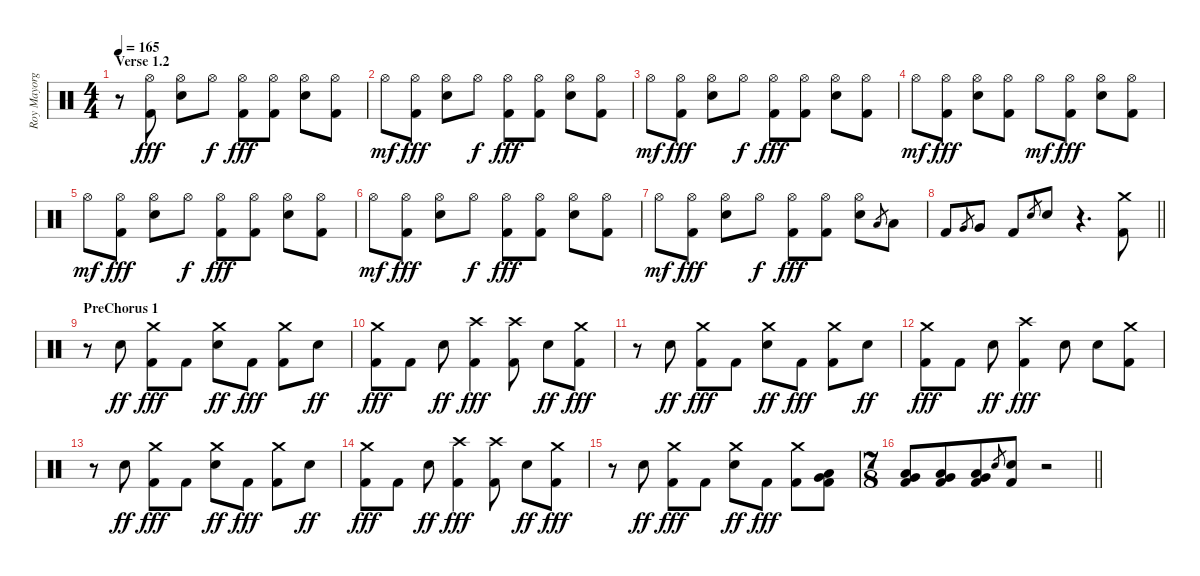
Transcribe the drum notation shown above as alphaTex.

\track ("Roy Mayorga" "Roy Mayorg") {instrument percussion}
\staff {score}
\articulation defaults
\ts (4 4)
\section ("" "Verse 1.2")
\tempo 165
\clef neutral
\ks c
r.8{dy fff} ("Hi-Hat (open)" "Kick (hit) 2").8 ("Hi-Hat (open)" "Electric Snare (hit)").8 "Hi-Hat (open)".8{dy f} ("Hi-Hat (open)" "Kick (hit) 2").8{dy fff} ("Hi-Hat (open)" "Kick (hit) 2").8 ("Hi-Hat (open)" "Electric Snare (hit)").8 ("Hi-Hat (open)" "Kick (hit) 2").8 |
"Hi-Hat (open)".8{dy mf} ("Hi-Hat (open)" "Kick (hit) 2").8{dy fff} ("Hi-Hat (open)" "Electric Snare (hit)").8 "Hi-Hat (open)".8{dy f} ("Hi-Hat (open)" "Kick (hit) 2").8{dy fff} ("Hi-Hat (open)" "Kick (hit) 2").8 ("Hi-Hat (open)" "Electric Snare (hit)").8 ("Hi-Hat (open)" "Kick (hit) 2").8 |
"Hi-Hat (open)".8{dy mf} ("Hi-Hat (open)" "Kick (hit) 2").8{dy fff} ("Hi-Hat (open)" "Electric Snare (hit)").8 "Hi-Hat (open)".8{dy f} ("Hi-Hat (open)" "Kick (hit) 2").8{dy fff} ("Hi-Hat (open)" "Kick (hit) 2").8 ("Hi-Hat (open)" "Electric Snare (hit)").8 ("Hi-Hat (open)" "Kick (hit) 2").8 |
"Hi-Hat (open)".8{dy mf} ("Hi-Hat (open)" "Kick (hit) 2").8{dy fff} ("Hi-Hat (open)" "Electric Snare (hit)").8 ("Hi-Hat (open)" "Kick (hit) 2").8 "Hi-Hat (open)".8{dy mf} ("Hi-Hat (open)" "Kick (hit) 2").8{dy fff} ("Hi-Hat (open)" "Electric Snare (hit)").8 ("Hi-Hat (open)" "Kick (hit) 2").8 |
"Hi-Hat (open)".8{dy mf} ("Hi-Hat (open)" "Kick (hit) 2").8{dy fff} ("Hi-Hat (open)" "Electric Snare (hit)").8 "Hi-Hat (open)".8{dy f} ("Hi-Hat (open)" "Kick (hit) 2").8{dy fff} ("Hi-Hat (open)" "Kick (hit) 2").8 ("Hi-Hat (open)" "Electric Snare (hit)").8 ("Hi-Hat (open)" "Kick (hit) 2").8 |
"Hi-Hat (open)".8{dy mf} ("Hi-Hat (open)" "Kick (hit) 2").8{dy fff} ("Hi-Hat (open)" "Electric Snare (hit)").8 "Hi-Hat (open)".8{dy f} ("Hi-Hat (open)" "Kick (hit) 2").8{dy fff} ("Hi-Hat (open)" "Kick (hit) 2").8 ("Hi-Hat (open)" "Electric Snare (hit)").8 ("Hi-Hat (open)" "Kick (hit) 2").8 |
"Hi-Hat (open)".8{dy mf} ("Hi-Hat (open)" "Kick (hit) 2").8{dy fff} ("Hi-Hat (open)" "Electric Snare (hit)").8 "Hi-Hat (open)".8{dy f} ("Hi-Hat (open)" "Kick (hit) 2").8{dy fff} ("Hi-Hat (open)" "Kick (hit) 2").8 ("Hi-Hat (open)" "Electric Snare (hit)").8 "Low Tom (hit)".8{gr} "Low Tom (hit)".8 |
\barLineRight lightlight "Kick (hit) 2".8 "Very Low Tom (hit)".8{gr} "Very Low Tom (hit)".8 "Kick (hit) 2".8 "Electric Snare (hit)".8{gr} "Electric Snare (hit)".8
r.4{d} ("Crash medium (hit)" "Kick (hit) 2").8 |
\section ("" "PreChorus 1")
r.8 "Electric Snare (hit)".8{dy ff} ("Crash medium (hit)" "Kick (hit) 2").8{dy fff} "Kick (hit) 2".8 ("Crash medium (hit)" "Electric Snare (hit)").8{dy ff} "Kick (hit) 2".8{dy fff} ("Crash medium (hit)" "Kick (hit) 2").8 "Electric Snare (hit)".8{dy ff} |
("Crash medium (hit)" "Kick (hit) 2").8{dy fff} "Kick (hit) 2".8 "Electric Snare (hit)".8{dy ff} ("Crash high (hit)" "Kick (hit) 2").4{dy fff} ("Crash high (hit)" "Kick (hit) 2").8 "Electric Snare (hit)".8{dy ff} ("Crash medium (hit)" "Kick (hit) 2").8{dy fff} |
r.8 "Electric Snare (hit)".8{dy ff} ("Crash medium (hit)" "Kick (hit) 2").8{dy fff} "Kick (hit) 2".8 ("Crash medium (hit)" "Electric Snare (hit)").8{dy ff} "Kick (hit) 2".8{dy fff} ("Crash medium (hit)" "Kick (hit) 2").8 "Electric Snare (hit)".8{dy ff} |
("Crash medium (hit)" "Kick (hit) 2").8{dy fff} "Kick (hit) 2".8 "Electric Snare (hit)".8{dy ff} ("Crash high (hit)" "Kick (hit) 2").4{dy fff} "Electric Snare (hit)".8 "Electric Snare (hit)".8 ("Crash medium (hit)" "Kick (hit) 2").8 |
r.8 "Electric Snare (hit)".8{dy ff} ("Crash medium (hit)" "Kick (hit) 2").8{dy fff} "Kick (hit) 2".8 ("Crash medium (hit)" "Electric Snare (hit)").8{dy ff} "Kick (hit) 2".8{dy fff} ("Crash medium (hit)" "Kick (hit) 2").8 "Electric Snare (hit)".8{dy ff} |
("Crash medium (hit)" "Kick (hit) 2").8{dy fff} "Kick (hit) 2".8 "Electric Snare (hit)".8{dy ff} ("Crash high (hit)" "Kick (hit) 2").4{dy fff} ("Crash high (hit)" "Kick (hit) 2").8 "Electric Snare (hit)".8{dy ff} ("Crash medium (hit)" "Kick (hit) 2").8{dy fff} |
r.8 "Electric Snare (hit)".8{dy ff} ("Crash medium (hit)" "Kick (hit) 2").8{dy fff} "Kick (hit) 2".8 ("Crash medium (hit)" "Electric Snare (hit)").8{dy ff} "Kick (hit) 2".8{dy fff} ("Crash medium (hit)" "Kick (hit) 2").8 ("Very Low Tom (hit)" "Low Floor Tom (hit)" "Kick (hit) 2").8 |
\ts (7 8)
\barLineRight lightlight
("Very Low Tom (hit)" "Low Floor Tom (hit)" "Kick (hit) 2").8 ("Very Low Tom (hit)" "Low Floor Tom (hit)" "Kick (hit) 2").8 ("Very Low Tom (hit)" "Low Floor Tom (hit)" "Kick (hit) 2").8 "Electric Snare (hit)".8{gr} ("Electric Snare (hit)" "Kick (hit) 2").8 r.2
